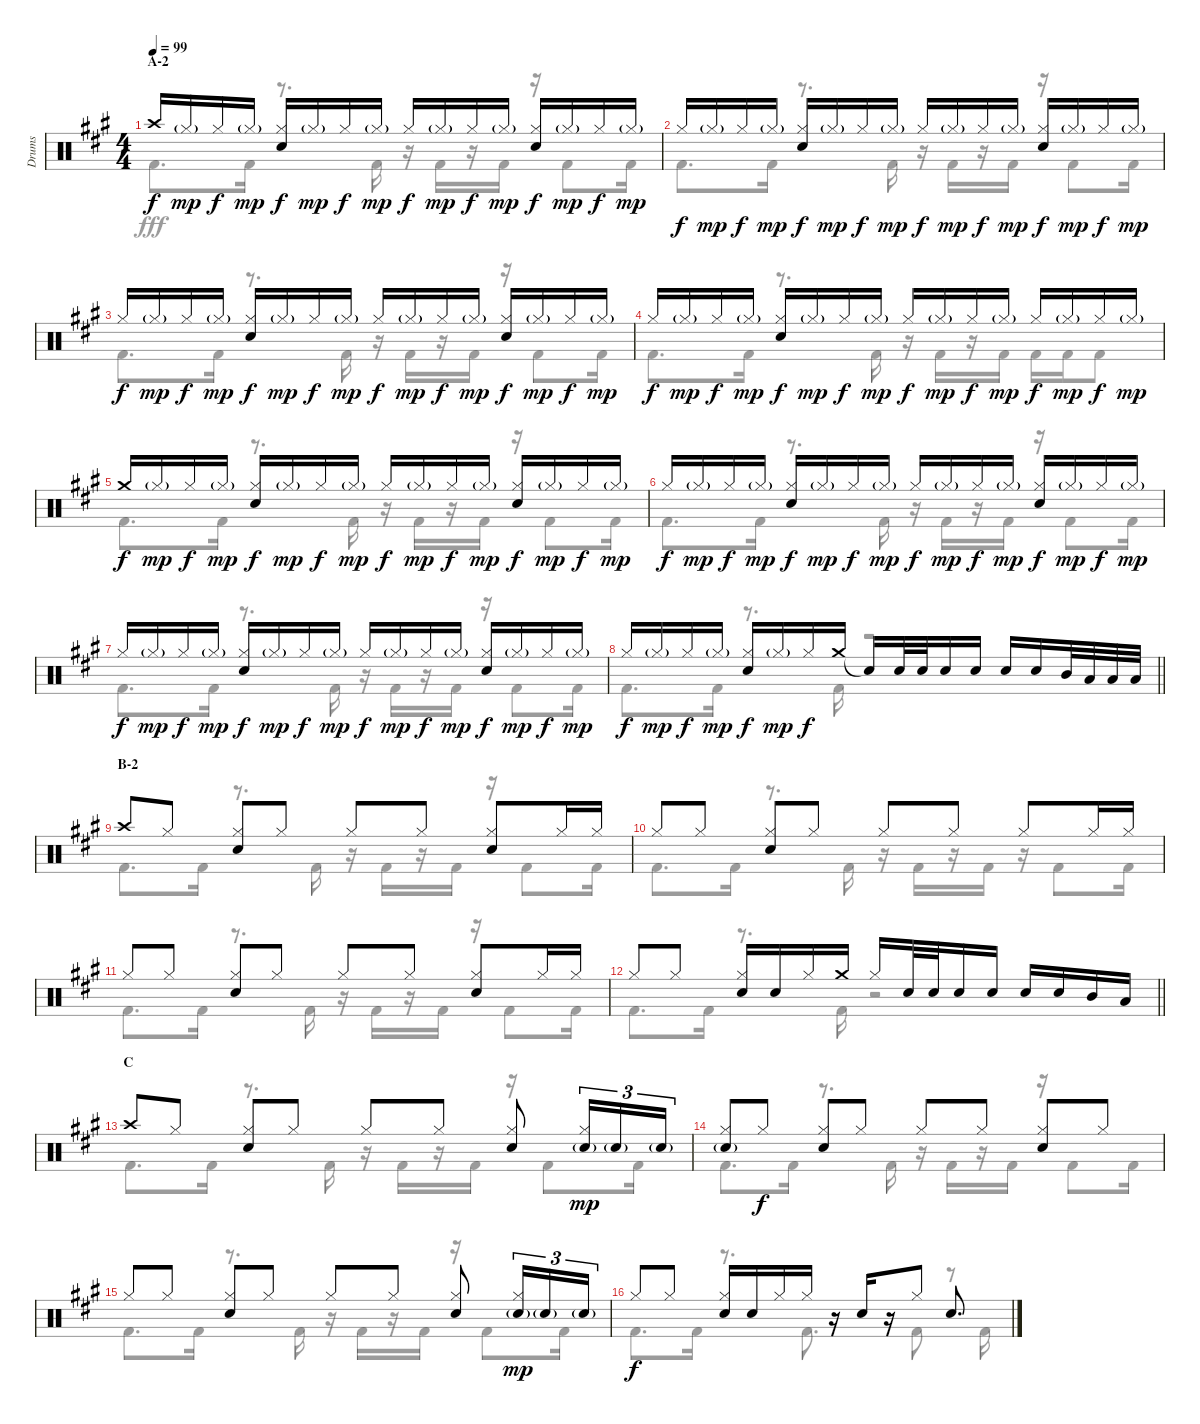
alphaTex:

\track ("Drums" "Drums") {instrument percussion}
\staff {score}
\articulation defaults
\voice
\ts (4 4)
\section ("" "A-2")
\tempo 99
\clef neutral
\ks a "Crash high (hit)".16{dy f} "Hi-Hat (closed)"{g}.16{dy mp} "Hi-Hat (closed)".16{dy f} "Hi-Hat (closed)"{g}.16{dy mp}
("Hi-Hat (closed)" "Snare (hit) 2").16{dy f} "Hi-Hat (closed)"{g}.16{dy mp} "Hi-Hat (closed)".16{dy f} "Hi-Hat (closed)"{g}.16{dy mp} "Hi-Hat (closed)".16{dy f} "Hi-Hat (closed)"{g}.16{dy mp} "Hi-Hat (closed)".16{dy f} "Hi-Hat (closed)"{g}.16{dy mp} ("Hi-Hat (closed)" "Snare (hit) 2").16{dy f} "Hi-Hat (closed)"{g}.16{dy mp} "Hi-Hat (closed)".16{dy f} "Hi-Hat (closed)"{g}.16{dy mp} |
"Hi-Hat (closed)".16{dy f} "Hi-Hat (closed)"{g}.16{dy mp} "Hi-Hat (closed)".16{dy f} "Hi-Hat (closed)"{g}.16{dy mp} ("Hi-Hat (closed)" "Snare (hit) 2").16{dy f} "Hi-Hat (closed)"{g}.16{dy mp} "Hi-Hat (closed)".16{dy f} "Hi-Hat (closed)"{g}.16{dy mp} "Hi-Hat (closed)".16{dy f} "Hi-Hat (closed)"{g}.16{dy mp} "Hi-Hat (closed)".16{dy f} "Hi-Hat (closed)"{g}.16{dy mp} ("Hi-Hat (closed)" "Snare (hit) 2").16{dy f} "Hi-Hat (closed)"{g}.16{dy mp} "Hi-Hat (closed)".16{dy f} "Hi-Hat (closed)"{g}.16{dy mp} |
"Hi-Hat (closed)".16{dy f} "Hi-Hat (closed)"{g}.16{dy mp} "Hi-Hat (closed)".16{dy f} "Hi-Hat (closed)"{g}.16{dy mp} ("Hi-Hat (closed)" "Snare (hit) 2").16{dy f} "Hi-Hat (closed)"{g}.16{dy mp} "Hi-Hat (closed)".16{dy f} "Hi-Hat (closed)"{g}.16{dy mp} "Hi-Hat (closed)".16{dy f} "Hi-Hat (closed)"{g}.16{dy mp} "Hi-Hat (closed)".16{dy f} "Hi-Hat (closed)"{g}.16{dy mp} ("Hi-Hat (closed)" "Snare (hit) 2").16{dy f} "Hi-Hat (closed)"{g}.16{dy mp} "Hi-Hat (closed)".16{dy f} "Hi-Hat (closed)"{g}.16{dy mp} |
"Hi-Hat (closed)".16{dy f} "Hi-Hat (closed)"{g}.16{dy mp} "Hi-Hat (closed)".16{dy f} "Hi-Hat (closed)"{g}.16{dy mp} ("Hi-Hat (closed)" "Snare (hit) 2").16{dy f} "Hi-Hat (closed)"{g}.16{dy mp} "Hi-Hat (closed)".16{dy f} "Hi-Hat (closed)"{g}.16{dy mp} "Hi-Hat (closed)".16{dy f} "Hi-Hat (closed)"{g}.16{dy mp} "Hi-Hat (closed)".16{dy f} "Hi-Hat (closed)"{g}.16{dy mp} "Hi-Hat (closed)".16{dy f} "Hi-Hat (closed)"{g}.16{dy mp} "Hi-Hat (closed)".16{dy f} "Hi-Hat (closed)"{g}.16{dy mp} |
"Crash medium (hit)".16{dy f} "Hi-Hat (closed)"{g}.16{dy mp} "Hi-Hat (closed)".16{dy f} "Hi-Hat (closed)"{g}.16{dy mp} ("Hi-Hat (closed)" "Snare (hit) 2").16{dy f} "Hi-Hat (closed)"{g}.16{dy mp} "Hi-Hat (closed)".16{dy f} "Hi-Hat (closed)"{g}.16{dy mp} "Hi-Hat (closed)".16{dy f} "Hi-Hat (closed)"{g}.16{dy mp} "Hi-Hat (closed)".16{dy f} "Hi-Hat (closed)"{g}.16{dy mp} ("Hi-Hat (closed)" "Snare (hit) 2").16{dy f} "Hi-Hat (closed)"{g}.16{dy mp} "Hi-Hat (closed)".16{dy f} "Hi-Hat (closed)"{g}.16{dy mp} |
"Hi-Hat (closed)".16{dy f} "Hi-Hat (closed)"{g}.16{dy mp} "Hi-Hat (closed)".16{dy f} "Hi-Hat (closed)"{g}.16{dy mp} ("Hi-Hat (closed)" "Snare (hit) 2").16{dy f} "Hi-Hat (closed)"{g}.16{dy mp} "Hi-Hat (closed)".16{dy f} "Hi-Hat (closed)"{g}.16{dy mp} "Hi-Hat (closed)".16{dy f} "Hi-Hat (closed)"{g}.16{dy mp} "Hi-Hat (closed)".16{dy f} "Hi-Hat (closed)"{g}.16{dy mp} ("Hi-Hat (closed)" "Snare (hit) 2").16{dy f} "Hi-Hat (closed)"{g}.16{dy mp} "Hi-Hat (closed)".16{dy f} "Hi-Hat (closed)"{g}.16{dy mp} |
"Hi-Hat (closed)".16{dy f} "Hi-Hat (closed)"{g}.16{dy mp} "Hi-Hat (closed)".16{dy f} "Hi-Hat (closed)"{g}.16{dy mp} ("Hi-Hat (closed)" "Snare (hit) 2").16{dy f} "Hi-Hat (closed)"{g}.16{dy mp} "Hi-Hat (closed)".16{dy f} "Hi-Hat (closed)"{g}.16{dy mp} "Hi-Hat (closed)".16{dy f} "Hi-Hat (closed)"{g}.16{dy mp} "Hi-Hat (closed)".16{dy f} "Hi-Hat (closed)"{g}.16{dy mp} ("Hi-Hat (closed)" "Snare (hit) 2").16{dy f} "Hi-Hat (closed)"{g}.16{dy mp} "Hi-Hat (closed)".16{dy f} "Hi-Hat (closed)"{g}.16{dy mp} |
\barLineRight lightlight "Hi-Hat (closed)".16{dy f} "Hi-Hat (closed)"{g}.16{dy mp} "Hi-Hat (closed)".16{dy f} "Hi-Hat (closed)"{g}.16{dy mp}
("Hi-Hat (closed)" "Snare (hit) 2").16{dy f} "Hi-Hat (closed)"{g}.16{dy mp} "Hi-Hat (closed)".16{dy f} "Crash medium (hit)".16 "Snare (hit)"{t}.16 "Snare (hit) 2".32 "Snare (hit) 2".32 "Snare (hit) 2".16 "Snare (hit) 2".16 "Snare (hit) 2".16 "Snare (hit) 2".16 "Mid Tom (hit)".32 "Low Tom (hit)".32 "Low Tom (hit)".32 "Low Tom (hit)".32 |
\section ("" "B-2")
"Crash high (hit)".8 "Hi-Hat (closed)".8 ("Hi-Hat (closed)" "Snare (hit) 2").8 "Hi-Hat (closed)".8 "Hi-Hat (closed)".8 "Hi-Hat (closed)".8 ("Hi-Hat (closed)" "Snare (hit) 2").8 "Hi-Hat (closed)".16 "Hi-Hat (closed)".16 |
"Hi-Hat (closed)".8 "Hi-Hat (closed)".8 ("Hi-Hat (closed)" "Snare (hit) 2").8 "Hi-Hat (closed)".8 "Hi-Hat (closed)".8 "Hi-Hat (closed)".8 "Hi-Hat (closed)".8 "Hi-Hat (closed)".16 "Hi-Hat (closed)".16 |
"Hi-Hat (closed)".8 "Hi-Hat (closed)".8 ("Hi-Hat (closed)" "Snare (hit) 2").8 "Hi-Hat (closed)".8 "Hi-Hat (closed)".8 "Hi-Hat (closed)".8 ("Hi-Hat (closed)" "Snare (hit) 2").8 "Hi-Hat (closed)".16 "Hi-Hat (closed)".16 |
\barLineRight lightlight "Hi-Hat (closed)".8 "Hi-Hat (closed)".8
("Hi-Hat (closed)" "Snare (hit) 2").16 "Snare (hit) 2".16 "Hi-Hat (closed)".16 "Crash medium (hit)".16 "Hi-Hat (closed)".16 "Snare (hit) 2".32 "Snare (hit) 2".32 "Snare (hit) 2".16 "Snare (hit) 2".16 "Snare (hit) 2".16 "Snare (hit) 2".16 "Mid Tom (hit)".16 "Low Tom (hit)".16 |
\section ("" "C")
"Crash high (hit)".8 "Hi-Hat (closed)".8 ("Hi-Hat (closed)" "Snare (hit) 2").8 "Hi-Hat (closed)".8 "Hi-Hat (closed)".8 "Hi-Hat (closed)".8 ("Hi-Hat (closed)" "Snare (hit) 2").8 ("Hi-Hat (closed)" "Snare (hit) 2"{g}).16{tu (3 2) dy mp} "Snare (hit) 2"{g}.16{tu (3 2)} "Snare (hit) 2"{g}.16{tu (3 2)} |
("Hi-Hat (closed)" "Snare (hit) 2"{g}).8 "Hi-Hat (closed)".8{dy f} ("Hi-Hat (closed)" "Snare (hit) 2").8 "Hi-Hat (closed)".8 "Hi-Hat (closed)".8 "Hi-Hat (closed)".8 ("Hi-Hat (closed)" "Snare (hit) 2").8 "Hi-Hat (closed)".8 |
"Hi-Hat (closed)".8 "Hi-Hat (closed)".8 ("Hi-Hat (closed)" "Snare (hit) 2").8 "Hi-Hat (closed)".8 "Hi-Hat (closed)".8 "Hi-Hat (closed)".8 ("Hi-Hat (closed)" "Snare (hit) 2").8 ("Hi-Hat (closed)" "Snare (hit) 2"{g}).16{tu (3 2) dy mp} "Snare (hit) 2"{g}.16{tu (3 2)} "Snare (hit) 2"{g}.16{tu (3 2)} |
"Hi-Hat (closed)".8{dy f} "Hi-Hat (closed)".8 ("Hi-Hat (closed)" "Snare (hit) 2").16 "Snare (hit) 2".16 "Hi-Hat (closed)".16 "Hi-Hat (closed)".16 r.16 "Snare (hit) 2".16 r.16 "Hi-Hat (closed)".8 "Snare (hit) 2".8{d}
\voice
\clef neutral
\ottava regular
\simile none
\ks a "Kick (hit) 2".8{d dy fff} "Kick (hit) 2".16
r.8{d} "Kick (hit) 2".16 r.16 "Kick (hit) 2".16 r.16 "Kick (hit) 2".16 r.16 "Kick (hit) 2".8 "Kick (hit) 2".16 |
"Kick (hit) 2".8{d} "Kick (hit) 2".16 r.8{d} "Kick (hit) 2".16 r.16 "Kick (hit) 2".16 r.16 "Kick (hit) 2".16 r.16 "Kick (hit) 2".8 "Kick (hit) 2".16 |
"Kick (hit) 2".8{d} "Kick (hit) 2".16 r.8{d} "Kick (hit) 2".16 r.16 "Kick (hit) 2".16 r.16 "Kick (hit) 2".16 r.16 "Kick (hit) 2".8 "Kick (hit) 2".16 |
"Kick (hit) 2".8{d} "Kick (hit) 2".16 r.8{d} "Kick (hit) 2".16 r.16 "Kick (hit) 2".16 r.16 "Kick (hit) 2".16 "Kick (hit) 2".16 "Kick (hit) 2".16 "Kick (hit) 2".8 |
"Kick (hit) 2".8{d} "Kick (hit) 2".16 r.8{d} "Kick (hit) 2".16 r.16 "Kick (hit) 2".16 r.16 "Kick (hit) 2".16 r.16 "Kick (hit) 2".8 "Kick (hit) 2".16 |
"Kick (hit) 2".8{d} "Kick (hit) 2".16 r.8{d} "Kick (hit) 2".16 r.16 "Kick (hit) 2".16 r.16 "Kick (hit) 2".16 r.16 "Kick (hit) 2".8 "Kick (hit) 2".16 |
"Kick (hit) 2".8{d} "Kick (hit) 2".16 r.8{d} "Kick (hit) 2".16 r.16 "Kick (hit) 2".16 r.16 "Kick (hit) 2".16 r.16 "Kick (hit) 2".8 "Kick (hit) 2".16 |
\barLineRight lightlight "Kick (hit) 2".8{d} "Kick (hit) 2".16
r.8{d} "Kick (hit) 2".16 r.2 |
"Kick (hit) 2".8{d} "Kick (hit) 2".16 r.8{d} "Kick (hit) 2".16 r.16 "Kick (hit) 2".16 r.16 "Kick (hit) 2".16 r.16 "Kick (hit) 2".8 "Kick (hit) 2".16 |
"Kick (hit) 2".8{d} "Kick (hit) 2".16 r.8{d} "Kick (hit) 2".16 r.16 "Kick (hit) 2".16 r.16 "Kick (hit) 2".16 r.16 "Kick (hit) 2".8 "Kick (hit) 2".16 |
"Kick (hit) 2".8{d} "Kick (hit) 2".16 r.8{d} "Kick (hit) 2".16 r.16 "Kick (hit) 2".16 r.16 "Kick (hit) 2".16 r.16 "Kick (hit) 2".8 "Kick (hit) 2".16 |
\barLineRight lightlight "Kick (hit) 2".8{d} "Kick (hit) 2".16
r.8{d} "Kick (hit) 2".16 r.2 |
"Kick (hit) 2".8{d} "Kick (hit) 2".16 r.8{d} "Kick (hit) 2".16 r.16 "Kick (hit) 2".16 r.16 "Kick (hit) 2".16 r.16 "Kick (hit) 2".8 "Kick (hit) 2".16 |
"Kick (hit) 2".8{d} "Kick (hit) 2".16 r.8{d} "Kick (hit) 2".16 r.16 "Kick (hit) 2".16 r.16 "Kick (hit) 2".16 r.16 "Kick (hit) 2".8 "Kick (hit) 2".16 |
"Kick (hit) 2".8{d} "Kick (hit) 2".16 r.8{d} "Kick (hit) 2".16 r.16 "Kick (hit) 2".16 r.16 "Kick (hit) 2".16 r.16 "Kick (hit) 2".8 "Kick (hit) 2".16 |
"Kick (hit) 2".8{d} "Kick (hit) 2".16 r.8{d} "Kick (hit) 2".8{d} r.16 "Kick (hit) 2".8 r.8 "Kick (hit) 2".16
